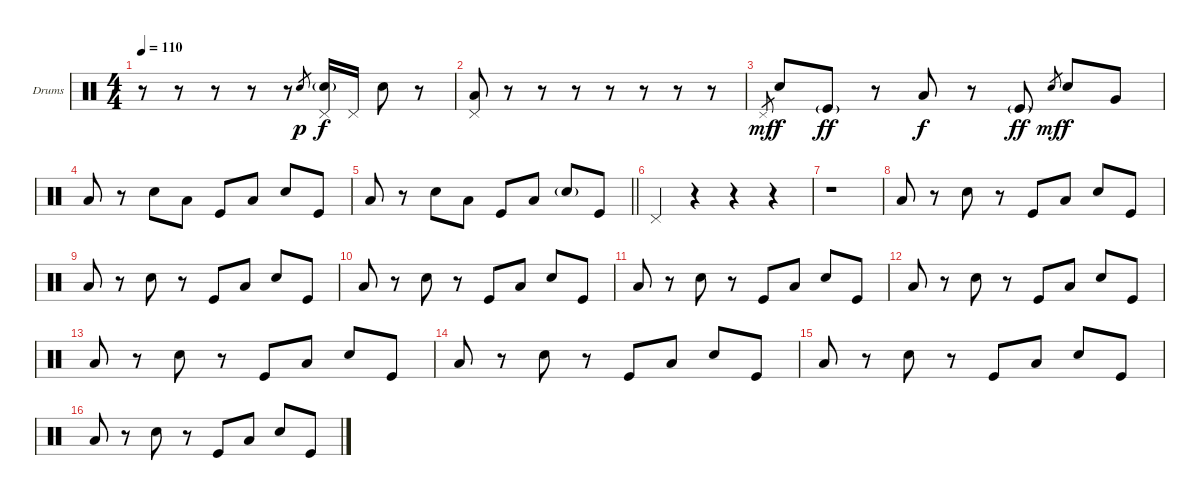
\bracketExtendMode groupsimilarinstruments
\firstSystemTrackNameOrientation horizontal
\otherSystemsTrackNameOrientation horizontal
\track ("Drumkit" "Drums") {instrument percussion}
\staff {score}
\articulation defaults
\ts (4 4)
\tempo 110
\clef neutral
\ks c
r.8{dy f} r.8 r.8 r.8 r.8 "Snare (hit) 2".8{gr dy p} ("Pedal Hi-Hat (hit)" "Snare (hit) 2"{g}).16{dy f} "Pedal Hi-Hat (hit)".16 "Snare (hit) 2".8 r.8 |
("Pedal Hi-Hat (hit)" "Low Tom (hit)").8 r.8 r.8 r.8 r.8 r.8 r.8 r.8 |
"Pedal Hi-Hat (hit)".8{gr dy mf} "Snare (hit) 2".8{dy f} "Kick (hit)"{g}.8{dy ff} r.8 "Low Tom (hit)".8{dy f} r.8 "Kick (hit)"{g}.8{dy ff} "Snare (hit) 2".8{gr dy mf} "Snare (hit) 2".8{dy f} "Very Low Tom (hit)".8 |
"Low Tom (hit)".8 r.8 "Snare (hit) 2".8 "Low Tom (hit)".8 "Kick (hit)".8 "Low Tom (hit)".8 "Snare (hit) 2".8 "Kick (hit)".8 |
\barLineRight lightlight "Low Tom (hit)".8
r.8 "Snare (hit) 2".8 "Low Tom (hit)".8 "Kick (hit)".8 "Low Tom (hit)".8 "Snare (hit) 2"{g}.8 "Kick (hit)".8 |
"Pedal Hi-Hat (hit)".4 r.4 r.4 r.4 |
r.1 |
"Low Tom (hit)".8 r.8 "Snare (hit) 2".8 r.8 "Kick (hit)".8 "Low Tom (hit)".8 "Snare (hit) 2".8 "Kick (hit)".8 |
"Low Tom (hit)".8 r.8 "Snare (hit) 2".8 r.8 "Kick (hit)".8 "Low Tom (hit)".8 "Snare (hit) 2".8 "Kick (hit)".8 |
"Low Tom (hit)".8 r.8 "Snare (hit) 2".8 r.8 "Kick (hit)".8 "Low Tom (hit)".8 "Snare (hit) 2".8 "Kick (hit)".8 |
"Low Tom (hit)".8 r.8 "Snare (hit) 2".8 r.8 "Kick (hit)".8 "Low Tom (hit)".8 "Snare (hit) 2".8 "Kick (hit)".8 |
"Low Tom (hit)".8 r.8 "Snare (hit) 2".8 r.8 "Kick (hit)".8 "Low Tom (hit)".8 "Snare (hit) 2".8 "Kick (hit)".8 |
"Low Tom (hit)".8 r.8 "Snare (hit) 2".8 r.8 "Kick (hit)".8 "Low Tom (hit)".8 "Snare (hit) 2".8 "Kick (hit)".8 |
"Low Tom (hit)".8 r.8 "Snare (hit) 2".8 r.8 "Kick (hit)".8 "Low Tom (hit)".8 "Snare (hit) 2".8 "Kick (hit)".8 |
"Low Tom (hit)".8 r.8 "Snare (hit) 2".8 r.8 "Kick (hit)".8 "Low Tom (hit)".8 "Snare (hit) 2".8 "Kick (hit)".8 |
"Low Tom (hit)".8 r.8 "Snare (hit) 2".8 r.8 "Kick (hit)".8 "Low Tom (hit)".8 "Snare (hit) 2".8 "Kick (hit)".8
